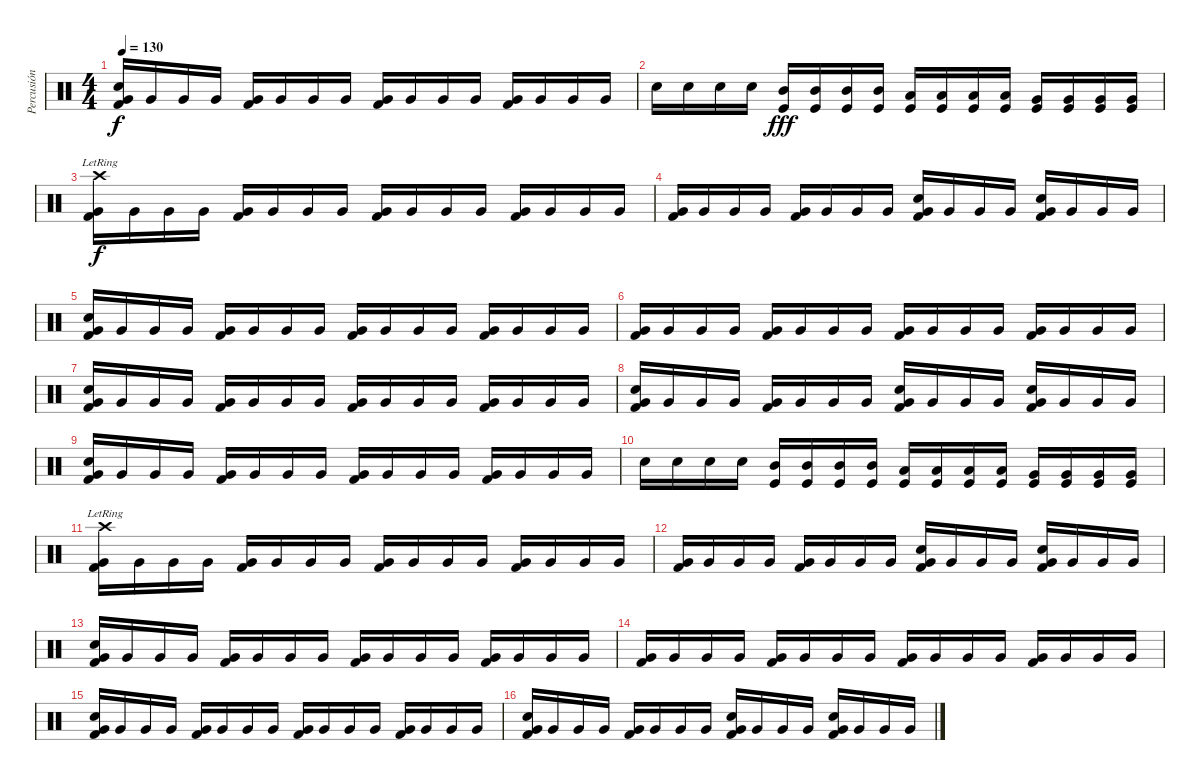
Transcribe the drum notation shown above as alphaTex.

\track ("Percusión" "Percusión") {instrument percussion}
\staff {score}
\articulation defaults
\ts (4 4)
\tempo 130
\clef neutral
\ks c
("Electric Snare (hit)" "Very Low Tom (hit)" "Kick (hit) 2").16{dy f} "Very Low Tom (hit)".16 "Very Low Tom (hit)".16 "Very Low Tom (hit)".16 ("Very Low Tom (hit)" "Kick (hit) 2").16 "Very Low Tom (hit)".16 "Very Low Tom (hit)".16 "Very Low Tom (hit)".16 ("Very Low Tom (hit)" "Kick (hit) 2").16 "Very Low Tom (hit)".16 "Very Low Tom (hit)".16 "Very Low Tom (hit)".16 ("Very Low Tom (hit)" "Kick (hit) 2").16 "Very Low Tom (hit)".16 "Very Low Tom (hit)".16 "Very Low Tom (hit)".16 |
"Electric Snare (hit)".16 "Electric Snare (hit)".16 "Electric Snare (hit)".16 "Electric Snare (hit)".16 ("Mid Tom (hit)" "Kick (hit)").16{dy fff} ("Mid Tom (hit)" "Kick (hit)").16 ("Mid Tom (hit)" "Kick (hit)").16 ("Mid Tom (hit)" "Kick (hit)").16 ("Low Tom (hit)" "Kick (hit)").16 ("Low Tom (hit)" "Kick (hit)").16 ("Low Tom (hit)" "Kick (hit)").16 ("Low Tom (hit)" "Kick (hit)").16 ("Very Low Tom (hit)" "Kick (hit)").16 ("Very Low Tom (hit)" "Kick (hit)").16 ("Very Low Tom (hit)" "Kick (hit)").16 ("Very Low Tom (hit)" "Kick (hit)").16 |
("Crash high (hit)"{lr} "Very Low Tom (hit)" "Kick (hit) 2").16{dy f} "Very Low Tom (hit)".16 "Very Low Tom (hit)".16 "Very Low Tom (hit)".16 ("Very Low Tom (hit)" "Kick (hit) 2").16 "Very Low Tom (hit)".16 "Very Low Tom (hit)".16 "Very Low Tom (hit)".16 ("Very Low Tom (hit)" "Kick (hit) 2").16 "Very Low Tom (hit)".16 "Very Low Tom (hit)".16 "Very Low Tom (hit)".16 ("Very Low Tom (hit)" "Kick (hit) 2").16 "Very Low Tom (hit)".16 "Very Low Tom (hit)".16 "Very Low Tom (hit)".16 |
("Very Low Tom (hit)" "Kick (hit) 2").16 "Very Low Tom (hit)".16 "Very Low Tom (hit)".16 "Very Low Tom (hit)".16 ("Very Low Tom (hit)" "Kick (hit) 2").16 "Very Low Tom (hit)".16 "Very Low Tom (hit)".16 "Very Low Tom (hit)".16 ("Electric Snare (hit)" "Very Low Tom (hit)" "Kick (hit) 2").16 "Very Low Tom (hit)".16 "Very Low Tom (hit)".16 "Very Low Tom (hit)".16 ("Electric Snare (hit)" "Very Low Tom (hit)" "Kick (hit) 2").16 "Very Low Tom (hit)".16 "Very Low Tom (hit)".16 "Very Low Tom (hit)".16 |
("Electric Snare (hit)" "Very Low Tom (hit)" "Kick (hit) 2").16 "Very Low Tom (hit)".16 "Very Low Tom (hit)".16 "Very Low Tom (hit)".16 ("Very Low Tom (hit)" "Kick (hit) 2").16 "Very Low Tom (hit)".16 "Very Low Tom (hit)".16 "Very Low Tom (hit)".16 ("Very Low Tom (hit)" "Kick (hit) 2").16 "Very Low Tom (hit)".16 "Very Low Tom (hit)".16 "Very Low Tom (hit)".16 ("Very Low Tom (hit)" "Kick (hit) 2").16 "Very Low Tom (hit)".16 "Very Low Tom (hit)".16 "Very Low Tom (hit)".16 |
("Very Low Tom (hit)" "Kick (hit) 2").16 "Very Low Tom (hit)".16 "Very Low Tom (hit)".16 "Very Low Tom (hit)".16 ("Very Low Tom (hit)" "Kick (hit) 2").16 "Very Low Tom (hit)".16 "Very Low Tom (hit)".16 "Very Low Tom (hit)".16 ("Very Low Tom (hit)" "Kick (hit) 2").16 "Very Low Tom (hit)".16 "Very Low Tom (hit)".16 "Very Low Tom (hit)".16 ("Very Low Tom (hit)" "Kick (hit) 2").16 "Very Low Tom (hit)".16 "Very Low Tom (hit)".16 "Very Low Tom (hit)".16 |
("Electric Snare (hit)" "Very Low Tom (hit)" "Kick (hit) 2").16 "Very Low Tom (hit)".16 "Very Low Tom (hit)".16 "Very Low Tom (hit)".16 ("Very Low Tom (hit)" "Kick (hit) 2").16 "Very Low Tom (hit)".16 "Very Low Tom (hit)".16 "Very Low Tom (hit)".16 ("Very Low Tom (hit)" "Kick (hit) 2").16 "Very Low Tom (hit)".16 "Very Low Tom (hit)".16 "Very Low Tom (hit)".16 ("Very Low Tom (hit)" "Kick (hit) 2").16 "Very Low Tom (hit)".16 "Very Low Tom (hit)".16 "Very Low Tom (hit)".16 |
("Electric Snare (hit)" "Very Low Tom (hit)" "Kick (hit) 2").16 "Very Low Tom (hit)".16 "Very Low Tom (hit)".16 "Very Low Tom (hit)".16 ("Very Low Tom (hit)" "Kick (hit) 2").16 "Very Low Tom (hit)".16 "Very Low Tom (hit)".16 "Very Low Tom (hit)".16 ("Electric Snare (hit)" "Very Low Tom (hit)" "Kick (hit) 2").16 "Very Low Tom (hit)".16 "Very Low Tom (hit)".16 "Very Low Tom (hit)".16 ("Electric Snare (hit)" "Very Low Tom (hit)" "Kick (hit) 2").16 "Very Low Tom (hit)".16 "Very Low Tom (hit)".16 "Very Low Tom (hit)".16 |
("Electric Snare (hit)" "Very Low Tom (hit)" "Kick (hit) 2").16 "Very Low Tom (hit)".16 "Very Low Tom (hit)".16 "Very Low Tom (hit)".16 ("Very Low Tom (hit)" "Kick (hit) 2").16 "Very Low Tom (hit)".16 "Very Low Tom (hit)".16 "Very Low Tom (hit)".16 ("Very Low Tom (hit)" "Kick (hit) 2").16 "Very Low Tom (hit)".16 "Very Low Tom (hit)".16 "Very Low Tom (hit)".16 ("Very Low Tom (hit)" "Kick (hit) 2").16 "Very Low Tom (hit)".16 "Very Low Tom (hit)".16 "Very Low Tom (hit)".16 |
"Electric Snare (hit)".16 "Electric Snare (hit)".16 "Electric Snare (hit)".16 "Electric Snare (hit)".16 ("Mid Tom (hit)" "Kick (hit)").16 ("Mid Tom (hit)" "Kick (hit)").16 ("Mid Tom (hit)" "Kick (hit)").16 ("Mid Tom (hit)" "Kick (hit)").16 ("Low Tom (hit)" "Kick (hit)").16 ("Low Tom (hit)" "Kick (hit)").16 ("Low Tom (hit)" "Kick (hit)").16 ("Low Tom (hit)" "Kick (hit)").16 ("Very Low Tom (hit)" "Kick (hit)").16 ("Very Low Tom (hit)" "Kick (hit)").16 ("Very Low Tom (hit)" "Kick (hit)").16 ("Very Low Tom (hit)" "Kick (hit)").16 |
("Crash high (hit)"{lr} "Very Low Tom (hit)" "Kick (hit) 2").16 "Very Low Tom (hit)".16 "Very Low Tom (hit)".16 "Very Low Tom (hit)".16 ("Very Low Tom (hit)" "Kick (hit) 2").16 "Very Low Tom (hit)".16 "Very Low Tom (hit)".16 "Very Low Tom (hit)".16 ("Very Low Tom (hit)" "Kick (hit) 2").16 "Very Low Tom (hit)".16 "Very Low Tom (hit)".16 "Very Low Tom (hit)".16 ("Very Low Tom (hit)" "Kick (hit) 2").16 "Very Low Tom (hit)".16 "Very Low Tom (hit)".16 "Very Low Tom (hit)".16 |
("Very Low Tom (hit)" "Kick (hit) 2").16 "Very Low Tom (hit)".16 "Very Low Tom (hit)".16 "Very Low Tom (hit)".16 ("Very Low Tom (hit)" "Kick (hit) 2").16 "Very Low Tom (hit)".16 "Very Low Tom (hit)".16 "Very Low Tom (hit)".16 ("Electric Snare (hit)" "Very Low Tom (hit)" "Kick (hit) 2").16 "Very Low Tom (hit)".16 "Very Low Tom (hit)".16 "Very Low Tom (hit)".16 ("Electric Snare (hit)" "Very Low Tom (hit)" "Kick (hit) 2").16 "Very Low Tom (hit)".16 "Very Low Tom (hit)".16 "Very Low Tom (hit)".16 |
("Electric Snare (hit)" "Very Low Tom (hit)" "Kick (hit) 2").16 "Very Low Tom (hit)".16 "Very Low Tom (hit)".16 "Very Low Tom (hit)".16 ("Very Low Tom (hit)" "Kick (hit) 2").16 "Very Low Tom (hit)".16 "Very Low Tom (hit)".16 "Very Low Tom (hit)".16 ("Very Low Tom (hit)" "Kick (hit) 2").16 "Very Low Tom (hit)".16 "Very Low Tom (hit)".16 "Very Low Tom (hit)".16 ("Very Low Tom (hit)" "Kick (hit) 2").16 "Very Low Tom (hit)".16 "Very Low Tom (hit)".16 "Very Low Tom (hit)".16 |
("Very Low Tom (hit)" "Kick (hit) 2").16 "Very Low Tom (hit)".16 "Very Low Tom (hit)".16 "Very Low Tom (hit)".16 ("Very Low Tom (hit)" "Kick (hit) 2").16 "Very Low Tom (hit)".16 "Very Low Tom (hit)".16 "Very Low Tom (hit)".16 ("Very Low Tom (hit)" "Kick (hit) 2").16 "Very Low Tom (hit)".16 "Very Low Tom (hit)".16 "Very Low Tom (hit)".16 ("Very Low Tom (hit)" "Kick (hit) 2").16 "Very Low Tom (hit)".16 "Very Low Tom (hit)".16 "Very Low Tom (hit)".16 |
("Electric Snare (hit)" "Very Low Tom (hit)" "Kick (hit) 2").16 "Very Low Tom (hit)".16 "Very Low Tom (hit)".16 "Very Low Tom (hit)".16 ("Very Low Tom (hit)" "Kick (hit) 2").16 "Very Low Tom (hit)".16 "Very Low Tom (hit)".16 "Very Low Tom (hit)".16 ("Very Low Tom (hit)" "Kick (hit) 2").16 "Very Low Tom (hit)".16 "Very Low Tom (hit)".16 "Very Low Tom (hit)".16 ("Very Low Tom (hit)" "Kick (hit) 2").16 "Very Low Tom (hit)".16 "Very Low Tom (hit)".16 "Very Low Tom (hit)".16 |
("Electric Snare (hit)" "Very Low Tom (hit)" "Kick (hit) 2").16 "Very Low Tom (hit)".16 "Very Low Tom (hit)".16 "Very Low Tom (hit)".16 ("Very Low Tom (hit)" "Kick (hit) 2").16 "Very Low Tom (hit)".16 "Very Low Tom (hit)".16 "Very Low Tom (hit)".16 ("Electric Snare (hit)" "Very Low Tom (hit)" "Kick (hit) 2").16 "Very Low Tom (hit)".16 "Very Low Tom (hit)".16 "Very Low Tom (hit)".16 ("Electric Snare (hit)" "Very Low Tom (hit)" "Kick (hit) 2").16 "Very Low Tom (hit)".16 "Very Low Tom (hit)".16 "Very Low Tom (hit)".16
